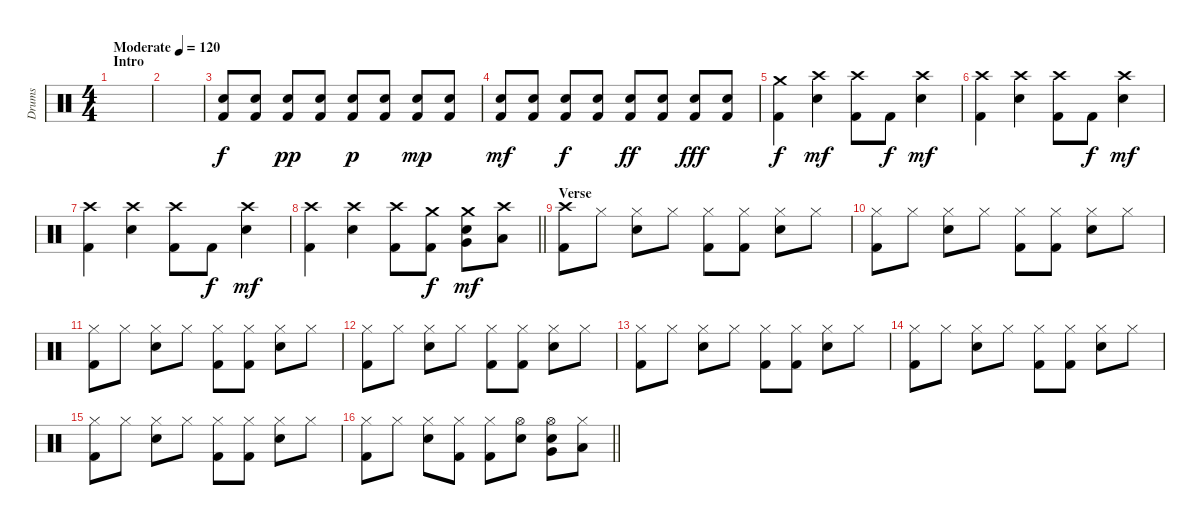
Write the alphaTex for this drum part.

\track ("Drums" "Drums") {instrument percussion}
\staff {score}
\articulation defaults
\ts (4 4)
\section ("" "Intro")
\tempo (120 "Moderate")
\clef neutral
\ks c
|
|
("Electric Snare (hit)" "Kick (hit) 2").8 ("Electric Snare (hit)" "Kick (hit) 2").8 ("Electric Snare (hit)" "Kick (hit) 2").8{dy pp} ("Electric Snare (hit)" "Kick (hit) 2").8 ("Electric Snare (hit)" "Kick (hit) 2").8{dy p} ("Electric Snare (hit)" "Kick (hit) 2").8 ("Electric Snare (hit)" "Kick (hit) 2").8{dy mp} ("Electric Snare (hit)" "Kick (hit) 2").8 |
("Electric Snare (hit)" "Kick (hit) 2").8{dy mf} ("Electric Snare (hit)" "Kick (hit) 2").8 ("Electric Snare (hit)" "Kick (hit) 2").8{dy f} ("Electric Snare (hit)" "Kick (hit) 2").8 ("Electric Snare (hit)" "Kick (hit) 2").8{dy ff} ("Electric Snare (hit)" "Kick (hit) 2").8 ("Electric Snare (hit)" "Kick (hit) 2").8{dy fff} ("Electric Snare (hit)" "Kick (hit) 2").8 |
("Crash medium (hit)" "Kick (hit) 2").4{dy f} ("Crash high (hit)" "Electric Snare (hit)").4{dy mf} ("Crash high (hit)" "Kick (hit) 2").8 "Kick (hit) 2".8{dy f} ("Crash high (hit)" "Electric Snare (hit)").4{dy mf} |
("Crash high (hit)" "Kick (hit) 2").4 ("Crash high (hit)" "Electric Snare (hit)").4 ("Crash high (hit)" "Kick (hit) 2").8 "Kick (hit) 2".8{dy f} ("Crash high (hit)" "Electric Snare (hit)").4{dy mf} |
("Crash high (hit)" "Kick (hit) 2").4 ("Crash high (hit)" "Electric Snare (hit)").4 ("Crash high (hit)" "Kick (hit) 2").8 "Kick (hit) 2".8{dy f} ("Crash high (hit)" "Electric Snare (hit)").4{dy mf} |
\barLineRight lightlight
("Crash high (hit)" "Kick (hit) 2").4 ("Crash high (hit)" "Electric Snare (hit)").4 ("Crash high (hit)" "Kick (hit) 2").8 ("Crash medium (hit)" "Kick (hit) 2").8{dy f} ("Crash medium (hit)" "Very Low Tom (hit)" "Electric Snare (hit)").8{dy mf} ("Crash high (hit)" "Low Floor Tom (hit)").8 |
\section ("" "Verse")
("Crash high (hit)" "Kick (hit) 2").8 "Hi-Hat (closed)".8 ("Hi-Hat (closed)" "Snare (hit) 2").8 "Hi-Hat (closed)".8 ("Hi-Hat (closed)" "Kick (hit) 2").8 ("Hi-Hat (closed)" "Kick (hit) 2").8 ("Hi-Hat (closed)" "Snare (hit) 2").8 "Hi-Hat (closed)".8 |
("Hi-Hat (closed)" "Kick (hit) 2").8 "Hi-Hat (closed)".8 ("Hi-Hat (closed)" "Snare (hit) 2").8 "Hi-Hat (closed)".8 ("Hi-Hat (closed)" "Kick (hit) 2").8 ("Hi-Hat (closed)" "Kick (hit) 2").8 ("Hi-Hat (closed)" "Snare (hit) 2").8 "Hi-Hat (closed)".8 |
("Hi-Hat (closed)" "Kick (hit) 2").8 "Hi-Hat (closed)".8 ("Hi-Hat (closed)" "Snare (hit) 2").8 "Hi-Hat (closed)".8 ("Hi-Hat (closed)" "Kick (hit) 2").8 ("Hi-Hat (closed)" "Kick (hit) 2").8 ("Hi-Hat (closed)" "Snare (hit) 2").8 "Hi-Hat (closed)".8 |
("Hi-Hat (closed)" "Kick (hit) 2").8 "Hi-Hat (closed)".8 ("Hi-Hat (closed)" "Snare (hit) 2").8 "Hi-Hat (closed)".8 ("Hi-Hat (closed)" "Kick (hit) 2").8 ("Hi-Hat (closed)" "Kick (hit) 2").8 ("Hi-Hat (closed)" "Snare (hit) 2").8 "Hi-Hat (closed)".8 |
("Hi-Hat (closed)" "Kick (hit) 2").8 "Hi-Hat (closed)".8 ("Hi-Hat (closed)" "Snare (hit) 2").8 "Hi-Hat (closed)".8 ("Hi-Hat (closed)" "Kick (hit) 2").8 ("Hi-Hat (closed)" "Kick (hit) 2").8 ("Hi-Hat (closed)" "Snare (hit) 2").8 "Hi-Hat (closed)".8 |
("Hi-Hat (closed)" "Kick (hit) 2").8 "Hi-Hat (closed)".8 ("Hi-Hat (closed)" "Snare (hit) 2").8 "Hi-Hat (closed)".8 ("Hi-Hat (closed)" "Kick (hit) 2").8 ("Hi-Hat (closed)" "Kick (hit) 2").8 ("Hi-Hat (closed)" "Snare (hit) 2").8 "Hi-Hat (closed)".8 |
("Hi-Hat (closed)" "Kick (hit) 2").8 "Hi-Hat (closed)".8 ("Hi-Hat (closed)" "Snare (hit) 2").8 "Hi-Hat (closed)".8 ("Hi-Hat (closed)" "Kick (hit) 2").8 ("Hi-Hat (closed)" "Kick (hit) 2").8 ("Hi-Hat (closed)" "Snare (hit) 2").8 "Hi-Hat (closed)".8 |
\barLineRight lightlight
("Hi-Hat (closed)" "Kick (hit) 2").8 "Hi-Hat (closed)".8 ("Hi-Hat (closed)" "Snare (hit) 2").8 ("Hi-Hat (closed)" "Kick (hit) 2").8 ("Hi-Hat (closed)" "Kick (hit) 2").8 ("Hi-Hat (open)" "Snare (hit) 2").8 ("Hi-Hat (open)" "Very Low Tom (hit)" "Snare (hit) 2").8 ("Hi-Hat (closed)" "Low Floor Tom (hit)").8
